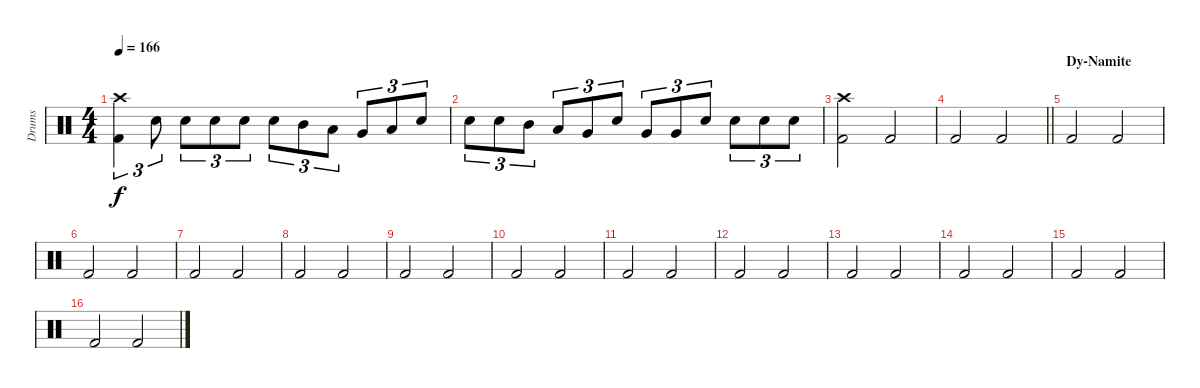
\track ("Drums" "Drums") {instrument percussion}
\staff {score}
\articulation defaults
\ts (4 4)
\tempo 166
\clef neutral
\ks c
("Crash high (hit)" "Kick (hit) 2").4{tu (3 2) dy f} "Snare (hit) 2".8{tu (3 2)} "Snare (hit) 2".8{tu (3 2)} "Snare (hit) 2".8{tu (3 2)} "Snare (hit) 2".8{tu (3 2)} "Snare (hit) 2".8{tu (3 2)} "Mid Tom (hit)".8{tu (3 2)} "Low Tom (hit)".8{tu (3 2)} "Very Low Tom (hit)".8{tu (3 2)} "Low Tom (hit)".8{tu (3 2)} "Snare (hit) 2".8{tu (3 2)} |
"Snare (hit) 2".8{tu (3 2)} "Snare (hit) 2".8{tu (3 2)} "Mid Tom (hit)".8{tu (3 2)} "Low Tom (hit)".8{tu (3 2)} "Very Low Tom (hit)".8{tu (3 2)} "Snare (hit) 2".8{tu (3 2)} "Very Low Tom (hit)".8{tu (3 2)} "Very Low Tom (hit)".8{tu (3 2)} "Snare (hit) 2".8{tu (3 2)} "Snare (hit) 2".8{tu (3 2)} "Snare (hit) 2".8{tu (3 2)} "Snare (hit) 2".8{tu (3 2)} |
("Crash high (hit)" "Kick (hit) 2").2 "Kick (hit) 2".2 |
\barLineRight lightlight "Kick (hit) 2".2 "Kick (hit) 2".2
|
\section ("" "Dy-Namite")
"Kick (hit) 2".2 "Kick (hit) 2".2 |
"Kick (hit) 2".2 "Kick (hit) 2".2 |
"Kick (hit) 2".2 "Kick (hit) 2".2 |
"Kick (hit) 2".2 "Kick (hit) 2".2 |
"Kick (hit) 2".2 "Kick (hit) 2".2 |
"Kick (hit) 2".2 "Kick (hit) 2".2 |
"Kick (hit) 2".2 "Kick (hit) 2".2 |
"Kick (hit) 2".2 "Kick (hit) 2".2 |
"Kick (hit) 2".2 "Kick (hit) 2".2 |
"Kick (hit) 2".2 "Kick (hit) 2".2 |
"Kick (hit) 2".2 "Kick (hit) 2".2 |
"Kick (hit) 2".2 "Kick (hit) 2".2
